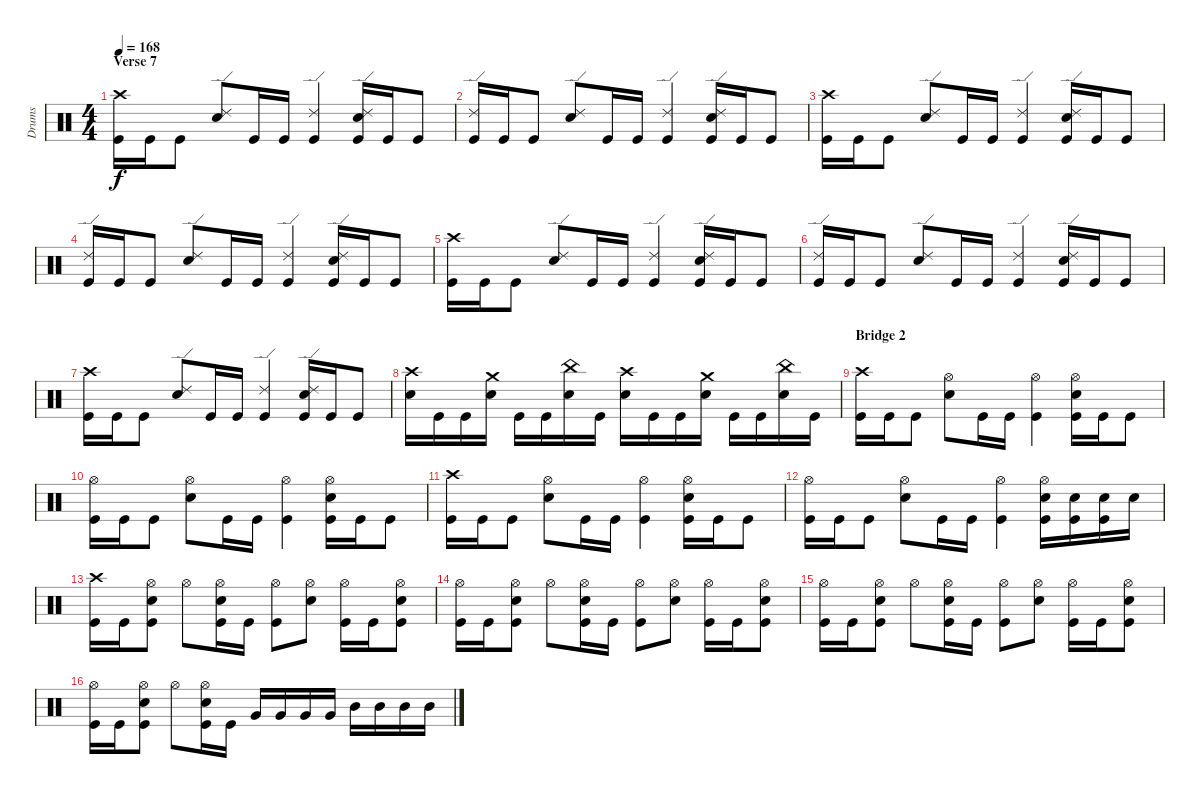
\track ("Drums" "Drums") {instrument percussion}
\staff {score}
\articulation defaults
\ts (4 4)
\section ("" "Verse 7")
\tempo 168
\clef neutral
\ks c
("Crash high (hit)" "Kick (hit)").16{dy f} "Kick (hit)".16 "Kick (hit)".8 ("Ride (edge) 2" "Electric Snare (hit)").8 "Kick (hit)".16 "Kick (hit)".16 ("Ride (edge) 2" "Kick (hit)").4 ("Ride (edge) 2" "Electric Snare (hit)" "Kick (hit)").16 "Kick (hit)".16 "Kick (hit)".8 |
("Ride (edge) 2" "Kick (hit)").16 "Kick (hit)".16 "Kick (hit)".8 ("Ride (edge) 2" "Electric Snare (hit)").8 "Kick (hit)".16 "Kick (hit)".16 ("Ride (edge) 2" "Kick (hit)").4 ("Ride (edge) 2" "Electric Snare (hit)" "Kick (hit)").16 "Kick (hit)".16 "Kick (hit)".8 |
("Crash high (hit)" "Kick (hit)").16 "Kick (hit)".16 "Kick (hit)".8 ("Ride (edge) 2" "Electric Snare (hit)").8 "Kick (hit)".16 "Kick (hit)".16 ("Ride (edge) 2" "Kick (hit)").4 ("Ride (edge) 2" "Electric Snare (hit)" "Kick (hit)").16 "Kick (hit)".16 "Kick (hit)".8 |
("Ride (edge) 2" "Kick (hit)").16 "Kick (hit)".16 "Kick (hit)".8 ("Ride (edge) 2" "Electric Snare (hit)").8 "Kick (hit)".16 "Kick (hit)".16 ("Ride (edge) 2" "Kick (hit)").4 ("Ride (edge) 2" "Electric Snare (hit)" "Kick (hit)").16 "Kick (hit)".16 "Kick (hit)".8 |
("Crash high (hit)" "Kick (hit)").16 "Kick (hit)".16 "Kick (hit)".8 ("Ride (edge) 2" "Electric Snare (hit)").8 "Kick (hit)".16 "Kick (hit)".16 ("Ride (edge) 2" "Kick (hit)").4 ("Ride (edge) 2" "Electric Snare (hit)" "Kick (hit)").16 "Kick (hit)".16 "Kick (hit)".8 |
("Ride (edge) 2" "Kick (hit)").16 "Kick (hit)".16 "Kick (hit)".8 ("Ride (edge) 2" "Electric Snare (hit)").8 "Kick (hit)".16 "Kick (hit)".16 ("Ride (edge) 2" "Kick (hit)").4 ("Ride (edge) 2" "Electric Snare (hit)" "Kick (hit)").16 "Kick (hit)".16 "Kick (hit)".8 |
("Crash high (hit)" "Kick (hit)").16 "Kick (hit)".16 "Kick (hit)".8 ("Ride (edge) 2" "Electric Snare (hit)").8 "Kick (hit)".16 "Kick (hit)".16 ("Ride (edge) 2" "Kick (hit)").4 ("Ride (edge) 2" "Electric Snare (hit)" "Kick (hit)").16 "Kick (hit)".16 "Kick (hit)".8 |
("Crash high (hit)" "Electric Snare (hit)").16 "Kick (hit)".16 "Kick (hit)".16 ("Crash medium (hit)" "Electric Snare (hit)").16 "Kick (hit)".16 "Kick (hit)".16 ("China (hit)" "Electric Snare (hit)").16 "Kick (hit)".16 ("Crash high (hit)" "Electric Snare (hit)").16 "Kick (hit)".16 "Kick (hit)".16 ("Crash medium (hit)" "Electric Snare (hit)").16 "Kick (hit)".16 "Kick (hit)".16 ("China (hit)" "Electric Snare (hit)").16 "Kick (hit)".16 |
\section ("" "Bridge 2")
("Crash high (hit)" "Kick (hit)").16 "Kick (hit)".16 "Kick (hit)".8 ("Hi-Hat (open)" "Electric Snare (hit)").8 "Kick (hit)".16 "Kick (hit)".16 ("Hi-Hat (open)" "Kick (hit)").4 ("Hi-Hat (open)" "Electric Snare (hit)" "Kick (hit)").16 "Kick (hit)".16 "Kick (hit)".8 |
("Hi-Hat (open)" "Kick (hit)").16 "Kick (hit)".16 "Kick (hit)".8 ("Hi-Hat (open)" "Electric Snare (hit)").8 "Kick (hit)".16 "Kick (hit)".16 ("Hi-Hat (open)" "Kick (hit)").4 ("Hi-Hat (open)" "Electric Snare (hit)" "Kick (hit)").16 "Kick (hit)".16 "Kick (hit)".8 |
("Crash high (hit)" "Kick (hit)").16 "Kick (hit)".16 "Kick (hit)".8 ("Hi-Hat (open)" "Electric Snare (hit)").8 "Kick (hit)".16 "Kick (hit)".16 ("Hi-Hat (open)" "Kick (hit)").4 ("Hi-Hat (open)" "Electric Snare (hit)" "Kick (hit)").16 "Kick (hit)".16 "Kick (hit)".8 |
("Hi-Hat (open)" "Kick (hit)").16 "Kick (hit)".16 "Kick (hit)".8 ("Hi-Hat (open)" "Electric Snare (hit)").8 "Kick (hit)".16 "Kick (hit)".16 ("Hi-Hat (open)" "Kick (hit)").4 ("Hi-Hat (open)" "Electric Snare (hit)" "Kick (hit)").16 ("Electric Snare (hit)" "Kick (hit)").16 ("Electric Snare (hit)" "Kick (hit)").16 "Electric Snare (hit)".16 |
("Crash high (hit)" "Kick (hit)").16 "Kick (hit)".16 ("Hi-Hat (open)" "Electric Snare (hit)" "Kick (hit)").8 "Hi-Hat (open)".8 ("Hi-Hat (open)" "Electric Snare (hit)" "Kick (hit)").16 "Kick (hit)".16 ("Hi-Hat (open)" "Kick (hit)").8 ("Hi-Hat (open)" "Electric Snare (hit)").8 ("Hi-Hat (open)" "Kick (hit)").16 "Kick (hit)".16 ("Hi-Hat (open)" "Electric Snare (hit)" "Kick (hit)").8 |
("Hi-Hat (open)" "Kick (hit)").16 "Kick (hit)".16 ("Hi-Hat (open)" "Electric Snare (hit)" "Kick (hit)").8 "Hi-Hat (open)".8 ("Hi-Hat (open)" "Electric Snare (hit)" "Kick (hit)").16 "Kick (hit)".16 ("Hi-Hat (open)" "Kick (hit)").8 ("Hi-Hat (open)" "Electric Snare (hit)").8 ("Hi-Hat (open)" "Kick (hit)").16 "Kick (hit)".16 ("Hi-Hat (open)" "Electric Snare (hit)" "Kick (hit)").8 |
("Hi-Hat (open)" "Kick (hit)").16 "Kick (hit)".16 ("Hi-Hat (open)" "Electric Snare (hit)" "Kick (hit)").8 "Hi-Hat (open)".8 ("Hi-Hat (open)" "Electric Snare (hit)" "Kick (hit)").16 "Kick (hit)".16 ("Hi-Hat (open)" "Kick (hit)").8 ("Hi-Hat (open)" "Electric Snare (hit)").8 ("Hi-Hat (open)" "Kick (hit)").16 "Kick (hit)".16 ("Hi-Hat (open)" "Electric Snare (hit)" "Kick (hit)").8 |
("Hi-Hat (open)" "Kick (hit)").16 "Kick (hit)".16 ("Hi-Hat (open)" "Electric Snare (hit)" "Kick (hit)").8 "Hi-Hat (open)".8 ("Hi-Hat (open)" "Electric Snare (hit)" "Kick (hit)").16 "Kick (hit)".16 "Very Low Tom (hit)".16 "Very Low Tom (hit)".16 "Very Low Tom (hit)".16 "Very Low Tom (hit)".16 "Mid Tom (hit)".16 "Mid Tom (hit)".16 "Mid Tom (hit)".16 "Mid Tom (hit)".16
